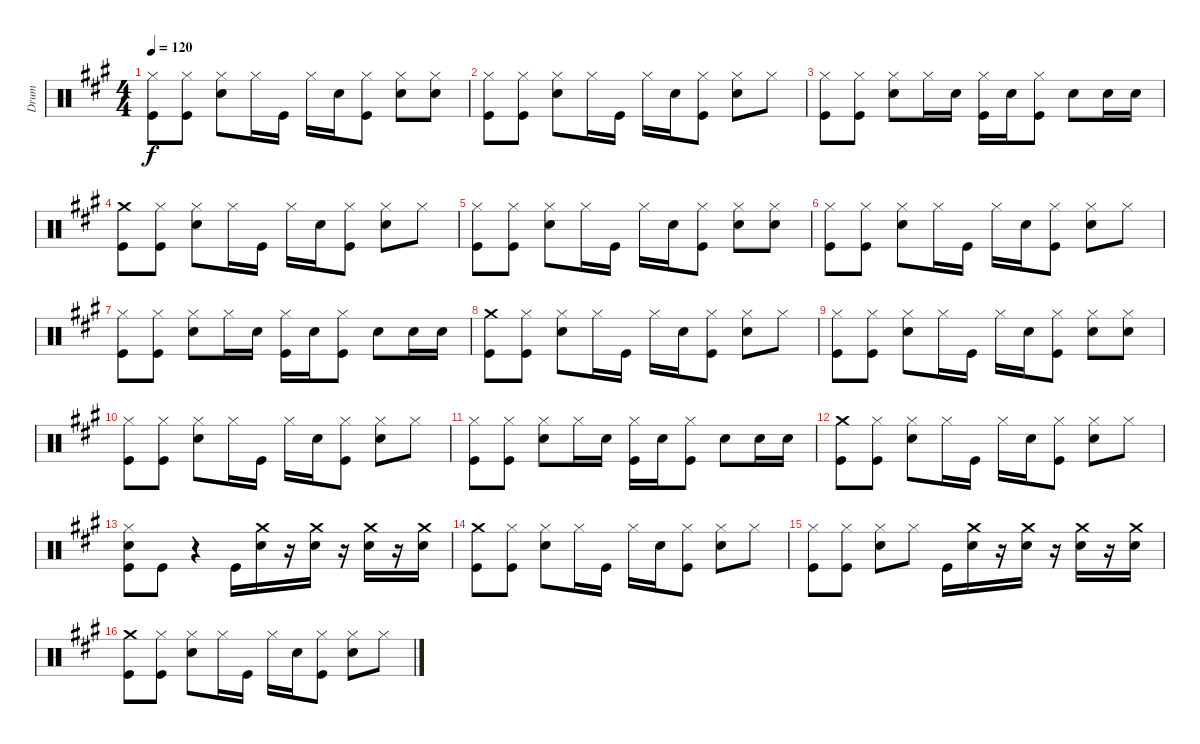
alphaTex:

\track ("Drum" "Drum") {instrument percussion}
\staff {score}
\articulation defaults
\ts (4 4)
\tempo 120
\clef neutral
\ks a
("Hi-Hat (closed)" "Kick (hit)").8{dy f} ("Hi-Hat (closed)" "Kick (hit)").8 ("Hi-Hat (closed)" "Snare (hit) 2").8 "Hi-Hat (closed)".16 "Kick (hit)".16 "Hi-Hat (closed)".16 "Snare (hit) 2".16 ("Hi-Hat (closed)" "Kick (hit)").8 ("Hi-Hat (closed)" "Snare (hit) 2").8 ("Hi-Hat (closed)" "Snare (hit) 2").8 |
("Hi-Hat (closed)" "Kick (hit)").8 ("Hi-Hat (closed)" "Kick (hit)").8 ("Hi-Hat (closed)" "Snare (hit) 2").8 "Hi-Hat (closed)".16 "Kick (hit)".16 "Hi-Hat (closed)".16 "Snare (hit) 2".16 ("Hi-Hat (closed)" "Kick (hit)").8 ("Hi-Hat (closed)" "Snare (hit) 2").8 "Hi-Hat (closed)".8 |
("Hi-Hat (closed)" "Kick (hit)").8 ("Hi-Hat (closed)" "Kick (hit)").8 ("Hi-Hat (closed)" "Snare (hit) 2").8 "Hi-Hat (closed)".16 "Snare (hit) 2".16 ("Hi-Hat (closed)" "Kick (hit)").16 "Snare (hit) 2".16 ("Hi-Hat (closed)" "Kick (hit)").8 "Snare (hit) 2".8 "Snare (hit) 2".16 "Snare (hit) 2".16 |
("Crash medium (hit)" "Kick (hit)").8 ("Hi-Hat (closed)" "Kick (hit)").8 ("Hi-Hat (closed)" "Snare (hit) 2").8 "Hi-Hat (closed)".16 "Kick (hit)".16 "Hi-Hat (closed)".16 "Snare (hit) 2".16 ("Hi-Hat (closed)" "Kick (hit)").8 ("Hi-Hat (closed)" "Snare (hit) 2").8 "Hi-Hat (closed)".8 |
("Hi-Hat (closed)" "Kick (hit)").8 ("Hi-Hat (closed)" "Kick (hit)").8 ("Hi-Hat (closed)" "Snare (hit) 2").8 "Hi-Hat (closed)".16 "Kick (hit)".16 "Hi-Hat (closed)".16 "Snare (hit) 2".16 ("Hi-Hat (closed)" "Kick (hit)").8 ("Hi-Hat (closed)" "Snare (hit) 2").8 ("Hi-Hat (closed)" "Snare (hit) 2").8 |
("Hi-Hat (closed)" "Kick (hit)").8 ("Hi-Hat (closed)" "Kick (hit)").8 ("Hi-Hat (closed)" "Snare (hit) 2").8 "Hi-Hat (closed)".16 "Kick (hit)".16 "Hi-Hat (closed)".16 "Snare (hit) 2".16 ("Hi-Hat (closed)" "Kick (hit)").8 ("Hi-Hat (closed)" "Snare (hit) 2").8 "Hi-Hat (closed)".8 |
("Hi-Hat (closed)" "Kick (hit)").8 ("Hi-Hat (closed)" "Kick (hit)").8 ("Hi-Hat (closed)" "Snare (hit) 2").8 "Hi-Hat (closed)".16 "Snare (hit) 2".16 ("Hi-Hat (closed)" "Kick (hit)").16 "Snare (hit) 2".16 ("Hi-Hat (closed)" "Kick (hit)").8 "Snare (hit) 2".8 "Snare (hit) 2".16 "Snare (hit) 2".16 |
("Crash medium (hit)" "Kick (hit)").8 ("Hi-Hat (closed)" "Kick (hit)").8 ("Hi-Hat (closed)" "Snare (hit) 2").8 "Hi-Hat (closed)".16 "Kick (hit)".16 "Hi-Hat (closed)".16 "Snare (hit) 2".16 ("Hi-Hat (closed)" "Kick (hit)").8 ("Hi-Hat (closed)" "Snare (hit) 2").8 "Hi-Hat (closed)".8 |
("Hi-Hat (closed)" "Kick (hit)").8 ("Hi-Hat (closed)" "Kick (hit)").8 ("Hi-Hat (closed)" "Snare (hit) 2").8 "Hi-Hat (closed)".16 "Kick (hit)".16 "Hi-Hat (closed)".16 "Snare (hit) 2".16 ("Hi-Hat (closed)" "Kick (hit)").8 ("Hi-Hat (closed)" "Snare (hit) 2").8 ("Hi-Hat (closed)" "Snare (hit) 2").8 |
("Hi-Hat (closed)" "Kick (hit)").8 ("Hi-Hat (closed)" "Kick (hit)").8 ("Hi-Hat (closed)" "Snare (hit) 2").8 "Hi-Hat (closed)".16 "Kick (hit)".16 "Hi-Hat (closed)".16 "Snare (hit) 2".16 ("Hi-Hat (closed)" "Kick (hit)").8 ("Hi-Hat (closed)" "Snare (hit) 2").8 "Hi-Hat (closed)".8 |
("Hi-Hat (closed)" "Kick (hit)").8 ("Hi-Hat (closed)" "Kick (hit)").8 ("Hi-Hat (closed)" "Snare (hit) 2").8 "Hi-Hat (closed)".16 "Snare (hit) 2".16 ("Hi-Hat (closed)" "Kick (hit)").16 "Snare (hit) 2".16 ("Hi-Hat (closed)" "Kick (hit)").8 "Snare (hit) 2".8 "Snare (hit) 2".16 "Snare (hit) 2".16 |
("Crash medium (hit)" "Kick (hit)").8 ("Hi-Hat (closed)" "Kick (hit)").8 ("Hi-Hat (closed)" "Snare (hit) 2").8 "Hi-Hat (closed)".16 "Kick (hit)".16 "Hi-Hat (closed)".16 "Snare (hit) 2".16 ("Hi-Hat (closed)" "Kick (hit)").8 ("Hi-Hat (closed)" "Snare (hit) 2").8 "Hi-Hat (closed)".8 |
("Hi-Hat (closed)" "Snare (hit) 2" "Kick (hit)").8 "Kick (hit)".8 r.4 "Kick (hit)".16 ("Crash medium (hit)" "Snare (hit) 2").16 r.16 ("Crash medium (hit)" "Snare (hit) 2").16 r.16 ("Crash medium (hit)" "Snare (hit) 2").16 r.16 ("Crash medium (hit)" "Snare (hit) 2").16 |
("Crash medium (hit)" "Kick (hit)").8 ("Hi-Hat (closed)" "Kick (hit)").8 ("Hi-Hat (closed)" "Snare (hit) 2").8 "Hi-Hat (closed)".16 "Kick (hit)".16 "Hi-Hat (closed)".16 "Snare (hit) 2".16 ("Hi-Hat (closed)" "Kick (hit)").8 ("Hi-Hat (closed)" "Snare (hit) 2").8 "Hi-Hat (closed)".8 |
("Hi-Hat (closed)" "Kick (hit)").8 ("Hi-Hat (closed)" "Kick (hit)").8 ("Hi-Hat (closed)" "Snare (hit) 2").8 "Hi-Hat (closed)".8 "Kick (hit)".16 ("Crash medium (hit)" "Snare (hit) 2").16 r.16 ("Crash medium (hit)" "Snare (hit) 2").16 r.16 ("Crash medium (hit)" "Snare (hit) 2").16 r.16 ("Crash medium (hit)" "Snare (hit) 2").16 |
("Crash medium (hit)" "Kick (hit)").8 ("Hi-Hat (closed)" "Kick (hit)").8 ("Hi-Hat (closed)" "Snare (hit) 2").8 "Hi-Hat (closed)".16 "Kick (hit)".16 "Hi-Hat (closed)".16 "Snare (hit) 2".16 ("Hi-Hat (closed)" "Kick (hit)").8 ("Hi-Hat (closed)" "Snare (hit) 2").8 "Hi-Hat (closed)".8
